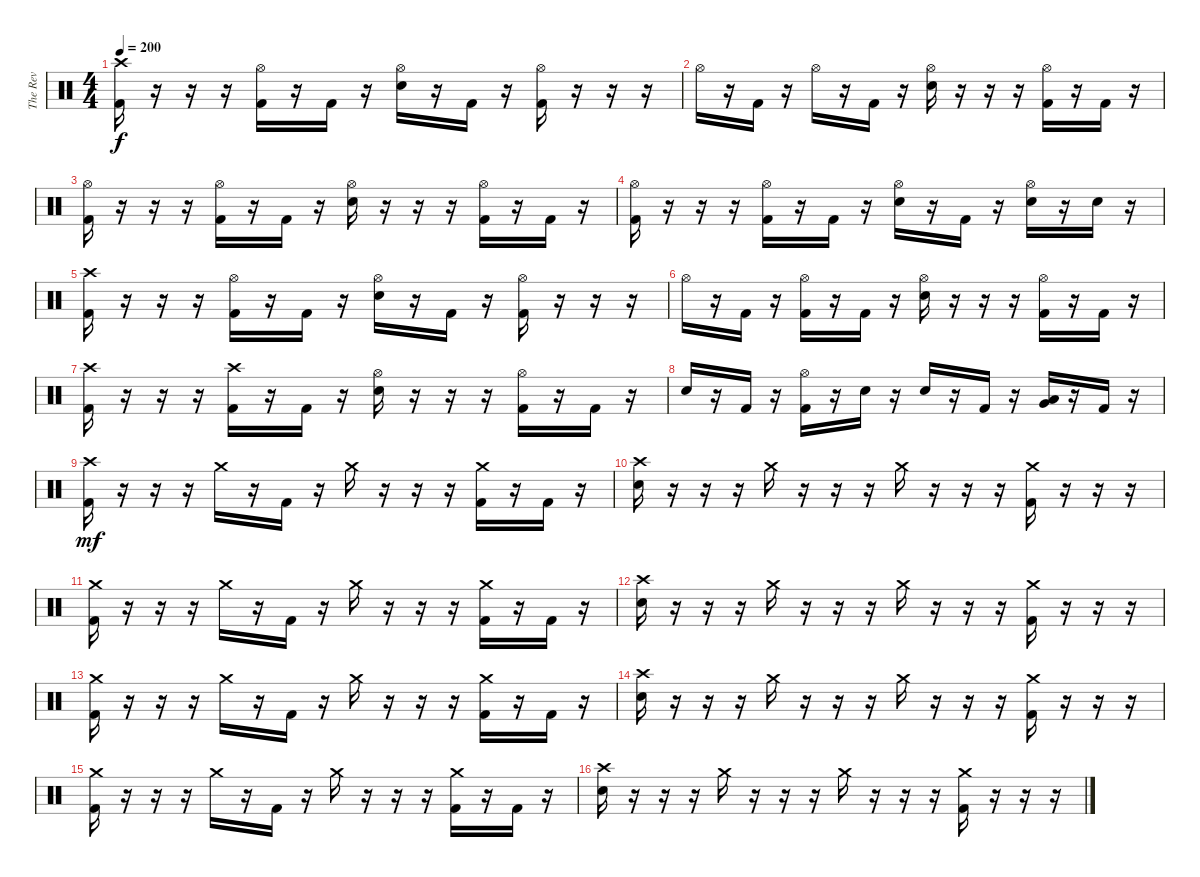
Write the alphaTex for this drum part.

\track ("The Rev" "The Rev") {instrument percussion}
\staff {score}
\articulation defaults
\ts (4 4)
\tempo 200
\clef neutral
\ks c
("Crash high (hit)" "Kick (hit) 2").16{dy f} r.16 r.16 r.16 ("Hi-Hat (open)" "Kick (hit) 2").16 r.16 "Kick (hit) 2".16 r.16 ("Hi-Hat (open)" "Electric Snare (hit)").16 r.16 "Kick (hit) 2".16 r.16 ("Hi-Hat (open)" "Kick (hit) 2").16 r.16 r.16 r.16 |
"Hi-Hat (open)".16 r.16 "Kick (hit) 2".16 r.16 "Hi-Hat (open)".16 r.16 "Kick (hit) 2".16 r.16 ("Hi-Hat (open)" "Electric Snare (hit)").16 r.16 r.16 r.16 ("Hi-Hat (open)" "Kick (hit) 2").16 r.16 "Kick (hit) 2".16 r.16 |
("Hi-Hat (open)" "Kick (hit) 2").16 r.16 r.16 r.16 ("Hi-Hat (open)" "Kick (hit) 2").16 r.16 "Kick (hit) 2".16 r.16 ("Hi-Hat (open)" "Electric Snare (hit)").16 r.16 r.16 r.16 ("Hi-Hat (open)" "Kick (hit) 2").16 r.16 "Kick (hit) 2".16 r.16 |
("Hi-Hat (open)" "Kick (hit) 2").16 r.16 r.16 r.16 ("Hi-Hat (open)" "Kick (hit) 2").16 r.16 "Kick (hit) 2".16 r.16 ("Hi-Hat (open)" "Electric Snare (hit)").16 r.16 "Kick (hit) 2".16 r.16 ("Hi-Hat (open)" "Electric Snare (hit)").16 r.16 "Electric Snare (hit)".16 r.16 |
("Crash high (hit)" "Kick (hit) 2").16 r.16 r.16 r.16 ("Hi-Hat (open)" "Kick (hit) 2").16 r.16 "Kick (hit) 2".16 r.16 ("Hi-Hat (open)" "Electric Snare (hit)").16 r.16 "Kick (hit) 2".16 r.16 ("Hi-Hat (open)" "Kick (hit) 2").16 r.16 r.16 r.16 |
"Hi-Hat (open)".16 r.16 "Kick (hit) 2".16 r.16 ("Hi-Hat (open)" "Kick (hit) 2").16 r.16 "Kick (hit) 2".16 r.16 ("Hi-Hat (open)" "Electric Snare (hit)").16 r.16 r.16 r.16 ("Hi-Hat (open)" "Kick (hit) 2").16 r.16 "Kick (hit) 2".16 r.16 |
("Crash high (hit)" "Kick (hit) 2").16 r.16 r.16 r.16 ("Crash high (hit)" "Kick (hit) 2").16 r.16 "Kick (hit) 2".16 r.16 ("Hi-Hat (open)" "Electric Snare (hit)").16 r.16 r.16 r.16 ("Hi-Hat (open)" "Kick (hit) 2").16 r.16 "Kick (hit) 2".16 r.16 |
"Electric Snare (hit)".16 r.16 "Kick (hit) 2".16 r.16 ("Hi-Hat (open)" "Kick (hit) 2").16 r.16 "Electric Snare (hit)".16 r.16 "Electric Snare (hit)".16 r.16 "Kick (hit) 2".16 r.16 ("Low Tom (hit)" "Very Low Tom (hit)").16 r.16 "Kick (hit) 2".16 r.16 |
("Crash high (hit)" "Kick (hit) 2").16{dy mf} r.16 r.16 r.16 "Crash medium (hit)".16 r.16 "Kick (hit) 2".16 r.16 "Crash medium (hit)".16 r.16 r.16 r.16 ("Crash medium (hit)" "Kick (hit) 2").16 r.16 "Kick (hit) 2".16 r.16 |
("Crash high (hit)" "Electric Snare (hit)").16 r.16 r.16 r.16 "Crash medium (hit)".16 r.16 r.16 r.16 "Crash medium (hit)".16 r.16 r.16 r.16 ("Crash medium (hit)" "Kick (hit) 2").16 r.16 r.16 r.16 |
("Crash medium (hit)" "Kick (hit) 2").16 r.16 r.16 r.16 "Crash medium (hit)".16 r.16 "Kick (hit) 2".16 r.16 "Crash medium (hit)".16 r.16 r.16 r.16 ("Crash medium (hit)" "Kick (hit) 2").16 r.16 "Kick (hit) 2".16 r.16 |
("Crash high (hit)" "Electric Snare (hit)").16 r.16 r.16 r.16 "Crash medium (hit)".16 r.16 r.16 r.16 "Crash medium (hit)".16 r.16 r.16 r.16 ("Crash medium (hit)" "Kick (hit) 2").16 r.16 r.16 r.16 |
("Crash medium (hit)" "Kick (hit) 2").16 r.16 r.16 r.16 "Crash medium (hit)".16 r.16 "Kick (hit) 2".16 r.16 "Crash medium (hit)".16 r.16 r.16 r.16 ("Crash medium (hit)" "Kick (hit) 2").16 r.16 "Kick (hit) 2".16 r.16 |
("Crash high (hit)" "Electric Snare (hit)").16 r.16 r.16 r.16 "Crash medium (hit)".16 r.16 r.16 r.16 "Crash medium (hit)".16 r.16 r.16 r.16 ("Crash medium (hit)" "Kick (hit) 2").16 r.16 r.16 r.16 |
("Crash medium (hit)" "Kick (hit) 2").16 r.16 r.16 r.16 "Crash medium (hit)".16 r.16 "Kick (hit) 2".16 r.16 "Crash medium (hit)".16 r.16 r.16 r.16 ("Crash medium (hit)" "Kick (hit) 2").16 r.16 "Kick (hit) 2".16 r.16 |
("Crash high (hit)" "Electric Snare (hit)").16 r.16 r.16 r.16 "Crash medium (hit)".16 r.16 r.16 r.16 "Crash medium (hit)".16 r.16 r.16 r.16 ("Crash medium (hit)" "Kick (hit) 2").16 r.16 r.16 r.16
